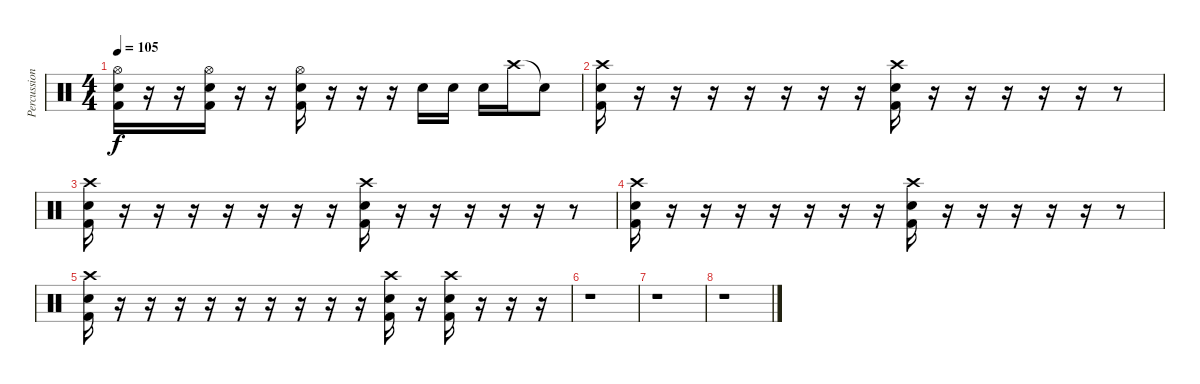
\track ("Percussions" "Percussion") {instrument percussion}
\staff {score}
\articulation defaults
\ts (4 4)
\tempo 105
\clef neutral
\ks c
("Kick (hit) 2" "Snare (hit) 2" "Hi-Hat (open)").16{dy f} r.16 r.16 ("Kick (hit) 2" "Snare (hit) 2" "Hi-Hat (open)").16 r.16 r.16 ("Kick (hit) 2" "Snare (hit) 2" "Hi-Hat (open)").16 r.16 r.16 r.16 "Snare (hit) 2".16 "Snare (hit) 2".16 "Snare (hit) 2".16 "Crash high (hit)".16 "Snare (hit)"{t}.8 |
("Crash high (hit)" "Snare (hit) 2" "Kick (hit) 2").16 r.16 r.16 r.16 r.16 r.16 r.16 r.16 ("Crash high (hit)" "Snare (hit) 2" "Kick (hit) 2").16 r.16 r.16 r.16 r.16 r.16 r.8 |
("Crash high (hit)" "Snare (hit) 2" "Kick (hit) 2").16 r.16 r.16 r.16 r.16 r.16 r.16 r.16 ("Crash high (hit)" "Snare (hit) 2" "Kick (hit) 2").16 r.16 r.16 r.16 r.16 r.16 r.8 |
("Crash high (hit)" "Snare (hit) 2" "Kick (hit) 2").16 r.16 r.16 r.16 r.16 r.16 r.16 r.16 ("Crash high (hit)" "Snare (hit) 2" "Kick (hit) 2").16 r.16 r.16 r.16 r.16 r.16 r.8 |
("Crash high (hit)" "Snare (hit) 2" "Kick (hit) 2").16 r.16 r.16 r.16 r.16 r.16 r.16 r.16 r.16 r.16 ("Crash high (hit)" "Snare (hit) 2" "Kick (hit) 2").16 r.16 ("Crash high (hit)" "Snare (hit) 2" "Kick (hit) 2").16 r.16 r.16 r.16 |
r.1 |
r.1 |
r.1
